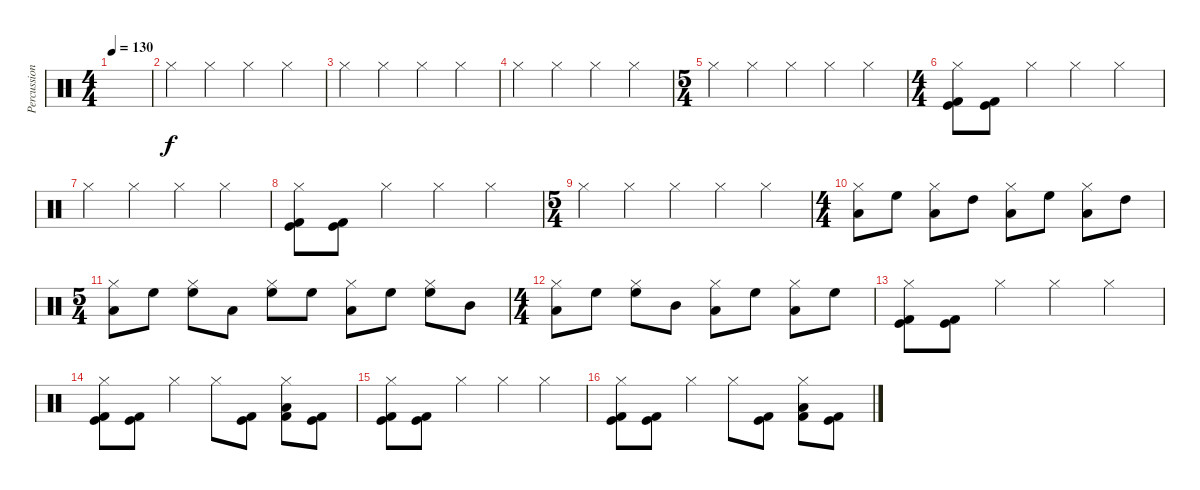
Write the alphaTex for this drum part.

\track ("Percussion" "Percussion") {instrument percussion}
\staff {score}
\articulation defaults
\ts (4 4)
\tempo 130
\clef neutral
\ks c
|
"Hi-Hat (closed)".4 "Hi-Hat (closed)".4 "Hi-Hat (closed)".4 "Hi-Hat (closed)".4 |
"Hi-Hat (closed)".4 "Hi-Hat (closed)".4 "Hi-Hat (closed)".4 "Hi-Hat (closed)".4 |
"Hi-Hat (closed)".4 "Hi-Hat (closed)".4 "Hi-Hat (closed)".4 "Hi-Hat (closed)".4 |
\ts (5 4)
"Hi-Hat (closed)".4 "Hi-Hat (closed)".4 "Hi-Hat (closed)".4 "Hi-Hat (closed)".4 "Hi-Hat (closed)".4 |
\ts (4 4)
("Hi-Hat (closed)" "Kick (hit) 2" "Kick (hit)").8 ("Kick (hit) 2" "Kick (hit)").8 "Hi-Hat (closed)".4 "Hi-Hat (closed)".4 "Hi-Hat (closed)".4 |
"Hi-Hat (closed)".4 "Hi-Hat (closed)".4 "Hi-Hat (closed)".4 "Hi-Hat (closed)".4 |
("Hi-Hat (closed)" "Kick (hit) 2" "Kick (hit)").8 ("Kick (hit) 2" "Kick (hit)").8 "Hi-Hat (closed)".4 "Hi-Hat (closed)".4 "Hi-Hat (closed)".4 |
\ts (5 4)
"Hi-Hat (closed)".4 "Hi-Hat (closed)".4 "Hi-Hat (closed)".4 "Hi-Hat (closed)".4 "Hi-Hat (closed)".4 |
\ts (4 4)
("Hi-Hat (closed)" "Low Tom (hit)").8 "High Floor Tom (hit)".8 ("Hi-Hat (closed)" "Low Tom (hit)").8 "High Tom (hit)".8 ("Hi-Hat (closed)" "Low Tom (hit)").8 "High Floor Tom (hit)".8 ("Hi-Hat (closed)" "Low Tom (hit)").8 "High Tom (hit)".8 |
\ts (5 4)
("Hi-Hat (closed)" "Low Tom (hit)").8 "High Floor Tom (hit)".8 ("Hi-Hat (closed)" "High Floor Tom (hit)").8 "Low Tom (hit)".8 ("Hi-Hat (closed)" "High Floor Tom (hit)").8 "High Floor Tom (hit)".8 ("Hi-Hat (closed)" "Low Tom (hit)").8 "High Floor Tom (hit)".8 ("Hi-Hat (closed)" "High Floor Tom (hit)").8 "Mid Tom (hit)".8 |
\ts (4 4)
("Hi-Hat (closed)" "Low Tom (hit)").8 "High Floor Tom (hit)".8 ("Hi-Hat (closed)" "High Floor Tom (hit)").8 "Mid Tom (hit)".8 ("Hi-Hat (closed)" "Low Tom (hit)").8 "High Floor Tom (hit)".8 ("Hi-Hat (closed)" "Low Tom (hit)").8 "High Floor Tom (hit)".8 |
("Hi-Hat (closed)" "Kick (hit)" "Kick (hit) 2").8 ("Kick (hit) 2" "Kick (hit)").8 "Hi-Hat (closed)".4 "Hi-Hat (closed)".4 "Hi-Hat (closed)".4 |
("Hi-Hat (closed)" "Kick (hit)" "Kick (hit) 2").8 ("Kick (hit)" "Kick (hit) 2").8 "Hi-Hat (closed)".4 "Hi-Hat (closed)".8 ("Kick (hit)" "Kick (hit) 2").8 ("Hi-Hat (closed)" "Low Tom (hit)" "Kick (hit) 2").8 ("Kick (hit)" "Kick (hit) 2").8 |
("Hi-Hat (closed)" "Kick (hit)" "Kick (hit) 2").8 ("Kick (hit) 2" "Kick (hit)").8 "Hi-Hat (closed)".4 "Hi-Hat (closed)".4 "Hi-Hat (closed)".4 |
("Hi-Hat (closed)" "Kick (hit)" "Kick (hit) 2").8 ("Kick (hit)" "Kick (hit) 2").8 "Hi-Hat (closed)".4 "Hi-Hat (closed)".8 ("Kick (hit)" "Kick (hit) 2").8 ("Hi-Hat (closed)" "Low Tom (hit)" "Kick (hit) 2").8 ("Kick (hit)" "Kick (hit) 2").8
